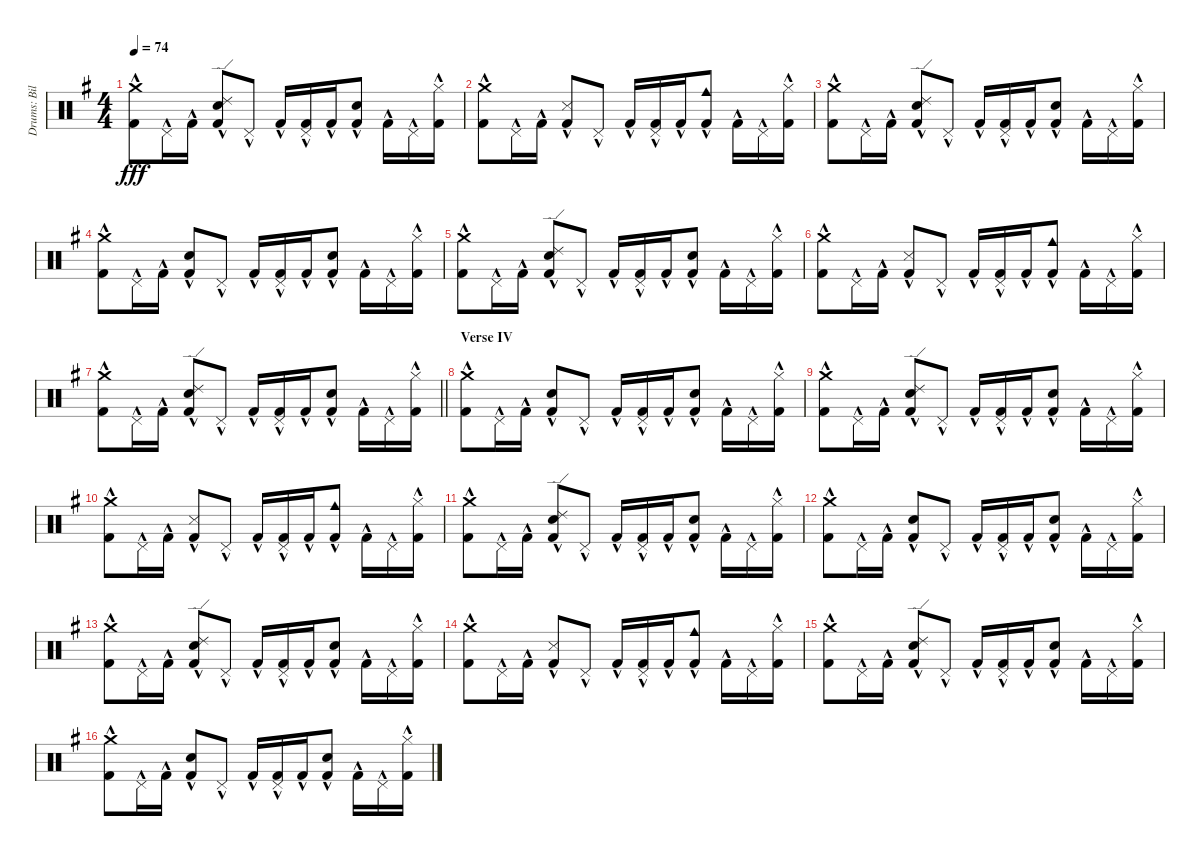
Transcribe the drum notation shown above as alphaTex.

\track ("Drums: Bill" "Drums: Bil") {instrument percussion}
\staff {score}
\articulation defaults
\ts (4 4)
\tempo 74
\clef neutral
\ks g
("Crash medium (hit)"{hac} "Kick (hit) 2"{hac}).8{dy fff} "Pedal Hi-Hat (hit)"{hac}.16 "Kick (hit) 2"{hac}.16 ("Ride (edge) 2" "Snare (hit) 2"{hac} "Kick (hit) 2"{hac}).8 "Pedal Hi-Hat (hit)"{hac}.8 "Kick (hit) 2"{hac}.16 ("Pedal Hi-Hat (hit)"{hac} "Kick (hit) 2"{hac}).16 "Kick (hit) 2"{hac}.16 ("Snare (hit) 2"{hac} "Kick (hit) 2"{hac}).8 "Kick (hit) 2"{hac}.16 "Pedal Hi-Hat (hit)"{hac}.16 ("Hi-Hat (closed)" "Kick (hit) 2"{hac}).16 |
("Crash medium (hit)"{hac} "Kick (hit) 2"{hac}).8 "Pedal Hi-Hat (hit)"{hac}.16 "Kick (hit) 2"{hac}.16 ("Kick (hit) 2"{hac} "Snare (side stick) 3").8 "Pedal Hi-Hat (hit)"{hac}.8 "Kick (hit) 2"{hac}.16 ("Pedal Hi-Hat (hit)"{hac} "Kick (hit) 2"{hac}).16 "Kick (hit) 2"{hac}.16 ("Kick (hit) 2"{hac} "Cowbell medium (hit)").8 "Kick (hit) 2"{hac}.16 "Pedal Hi-Hat (hit)"{hac}.16 ("Hi-Hat (closed)" "Kick (hit) 2"{hac}).16 |
("Crash medium (hit)"{hac} "Kick (hit) 2"{hac}).8 "Pedal Hi-Hat (hit)"{hac}.16 "Kick (hit) 2"{hac}.16 ("Ride (edge) 2" "Snare (hit) 2"{hac} "Kick (hit) 2"{hac}).8 "Pedal Hi-Hat (hit)"{hac}.8 "Kick (hit) 2"{hac}.16 ("Pedal Hi-Hat (hit)"{hac} "Kick (hit) 2"{hac}).16 "Kick (hit) 2"{hac}.16 ("Snare (hit) 2"{hac} "Kick (hit) 2"{hac}).8 "Kick (hit) 2"{hac}.16 "Pedal Hi-Hat (hit)"{hac}.16 ("Hi-Hat (closed)" "Kick (hit) 2"{hac}).16 |
("Crash medium (hit)"{hac} "Kick (hit) 2"{hac}).8 "Pedal Hi-Hat (hit)"{hac}.16 "Kick (hit) 2"{hac}.16 ("Snare (hit) 2"{hac} "Kick (hit) 2"{hac}).8 "Pedal Hi-Hat (hit)"{hac}.8 "Kick (hit) 2"{hac}.16 ("Pedal Hi-Hat (hit)"{hac} "Kick (hit) 2"{hac}).16 "Kick (hit) 2"{hac}.16 ("Snare (hit) 2"{hac} "Kick (hit) 2"{hac}).8 "Kick (hit) 2"{hac}.16 "Pedal Hi-Hat (hit)"{hac}.16 ("Hi-Hat (closed)" "Kick (hit) 2"{hac}).16 |
("Crash medium (hit)"{hac} "Kick (hit) 2"{hac}).8 "Pedal Hi-Hat (hit)"{hac}.16 "Kick (hit) 2"{hac}.16 ("Ride (edge) 2" "Snare (hit) 2"{hac} "Kick (hit) 2"{hac}).8 "Pedal Hi-Hat (hit)"{hac}.8 "Kick (hit) 2"{hac}.16 ("Pedal Hi-Hat (hit)"{hac} "Kick (hit) 2"{hac}).16 "Kick (hit) 2"{hac}.16 ("Snare (hit) 2"{hac} "Kick (hit) 2"{hac}).8 "Kick (hit) 2"{hac}.16 "Pedal Hi-Hat (hit)"{hac}.16 ("Hi-Hat (closed)" "Kick (hit) 2"{hac}).16 |
("Crash medium (hit)"{hac} "Kick (hit) 2"{hac}).8 "Pedal Hi-Hat (hit)"{hac}.16 "Kick (hit) 2"{hac}.16 ("Kick (hit) 2"{hac} "Snare (side stick) 3").8 "Pedal Hi-Hat (hit)"{hac}.8 "Kick (hit) 2"{hac}.16 ("Pedal Hi-Hat (hit)"{hac} "Kick (hit) 2"{hac}).16 "Kick (hit) 2"{hac}.16 ("Kick (hit) 2"{hac} "Cowbell medium (hit)").8 "Kick (hit) 2"{hac}.16 "Pedal Hi-Hat (hit)"{hac}.16 ("Hi-Hat (closed)" "Kick (hit) 2"{hac}).16 |
\barLineRight lightlight
("Crash medium (hit)"{hac} "Kick (hit) 2"{hac}).8 "Pedal Hi-Hat (hit)"{hac}.16 "Kick (hit) 2"{hac}.16 ("Ride (edge) 2" "Snare (hit) 2"{hac} "Kick (hit) 2"{hac}).8 "Pedal Hi-Hat (hit)"{hac}.8 "Kick (hit) 2"{hac}.16 ("Pedal Hi-Hat (hit)"{hac} "Kick (hit) 2"{hac}).16 "Kick (hit) 2"{hac}.16 ("Snare (hit) 2"{hac} "Kick (hit) 2"{hac}).8 "Kick (hit) 2"{hac}.16 "Pedal Hi-Hat (hit)"{hac}.16 ("Hi-Hat (closed)" "Kick (hit) 2"{hac}).16 |
\section ("" "Verse IV")
("Crash medium (hit)"{hac} "Kick (hit) 2"{hac}).8 "Pedal Hi-Hat (hit)"{hac}.16 "Kick (hit) 2"{hac}.16 ("Snare (hit) 2"{hac} "Kick (hit) 2"{hac}).8 "Pedal Hi-Hat (hit)"{hac}.8 "Kick (hit) 2"{hac}.16 ("Pedal Hi-Hat (hit)"{hac} "Kick (hit) 2"{hac}).16 "Kick (hit) 2"{hac}.16 ("Snare (hit) 2"{hac} "Kick (hit) 2"{hac}).8 "Kick (hit) 2"{hac}.16 "Pedal Hi-Hat (hit)"{hac}.16 ("Hi-Hat (closed)" "Kick (hit) 2"{hac}).16 |
("Crash medium (hit)"{hac} "Kick (hit) 2"{hac}).8 "Pedal Hi-Hat (hit)"{hac}.16 "Kick (hit) 2"{hac}.16 ("Ride (edge) 2" "Snare (hit) 2"{hac} "Kick (hit) 2"{hac}).8 "Pedal Hi-Hat (hit)"{hac}.8 "Kick (hit) 2"{hac}.16 ("Pedal Hi-Hat (hit)"{hac} "Kick (hit) 2"{hac}).16 "Kick (hit) 2"{hac}.16 ("Snare (hit) 2"{hac} "Kick (hit) 2"{hac}).8 "Kick (hit) 2"{hac}.16 "Pedal Hi-Hat (hit)"{hac}.16 ("Hi-Hat (closed)" "Kick (hit) 2"{hac}).16 |
("Crash medium (hit)"{hac} "Kick (hit) 2"{hac}).8 "Pedal Hi-Hat (hit)"{hac}.16 "Kick (hit) 2"{hac}.16 ("Kick (hit) 2"{hac} "Snare (side stick) 3").8 "Pedal Hi-Hat (hit)"{hac}.8 "Kick (hit) 2"{hac}.16 ("Pedal Hi-Hat (hit)"{hac} "Kick (hit) 2"{hac}).16 "Kick (hit) 2"{hac}.16 ("Kick (hit) 2"{hac} "Cowbell medium (hit)").8 "Kick (hit) 2"{hac}.16 "Pedal Hi-Hat (hit)"{hac}.16 ("Hi-Hat (closed)" "Kick (hit) 2"{hac}).16 |
("Crash medium (hit)"{hac} "Kick (hit) 2"{hac}).8 "Pedal Hi-Hat (hit)"{hac}.16 "Kick (hit) 2"{hac}.16 ("Ride (edge) 2" "Snare (hit) 2"{hac} "Kick (hit) 2"{hac}).8 "Pedal Hi-Hat (hit)"{hac}.8 "Kick (hit) 2"{hac}.16 ("Pedal Hi-Hat (hit)"{hac} "Kick (hit) 2"{hac}).16 "Kick (hit) 2"{hac}.16 ("Snare (hit) 2"{hac} "Kick (hit) 2"{hac}).8 "Kick (hit) 2"{hac}.16 "Pedal Hi-Hat (hit)"{hac}.16 ("Hi-Hat (closed)" "Kick (hit) 2"{hac}).16 |
("Crash medium (hit)"{hac} "Kick (hit) 2"{hac}).8 "Pedal Hi-Hat (hit)"{hac}.16 "Kick (hit) 2"{hac}.16 ("Snare (hit) 2"{hac} "Kick (hit) 2"{hac}).8 "Pedal Hi-Hat (hit)"{hac}.8 "Kick (hit) 2"{hac}.16 ("Pedal Hi-Hat (hit)"{hac} "Kick (hit) 2"{hac}).16 "Kick (hit) 2"{hac}.16 ("Snare (hit) 2"{hac} "Kick (hit) 2"{hac}).8 "Kick (hit) 2"{hac}.16 "Pedal Hi-Hat (hit)"{hac}.16 ("Hi-Hat (closed)" "Kick (hit) 2"{hac}).16 |
("Crash medium (hit)"{hac} "Kick (hit) 2"{hac}).8 "Pedal Hi-Hat (hit)"{hac}.16 "Kick (hit) 2"{hac}.16 ("Ride (edge) 2" "Snare (hit) 2"{hac} "Kick (hit) 2"{hac}).8 "Pedal Hi-Hat (hit)"{hac}.8 "Kick (hit) 2"{hac}.16 ("Pedal Hi-Hat (hit)"{hac} "Kick (hit) 2"{hac}).16 "Kick (hit) 2"{hac}.16 ("Snare (hit) 2"{hac} "Kick (hit) 2"{hac}).8 "Kick (hit) 2"{hac}.16 "Pedal Hi-Hat (hit)"{hac}.16 ("Hi-Hat (closed)" "Kick (hit) 2"{hac}).16 |
("Crash medium (hit)"{hac} "Kick (hit) 2"{hac}).8 "Pedal Hi-Hat (hit)"{hac}.16 "Kick (hit) 2"{hac}.16 ("Kick (hit) 2"{hac} "Snare (side stick) 3").8 "Pedal Hi-Hat (hit)"{hac}.8 "Kick (hit) 2"{hac}.16 ("Pedal Hi-Hat (hit)"{hac} "Kick (hit) 2"{hac}).16 "Kick (hit) 2"{hac}.16 ("Kick (hit) 2"{hac} "Cowbell medium (hit)").8 "Kick (hit) 2"{hac}.16 "Pedal Hi-Hat (hit)"{hac}.16 ("Hi-Hat (closed)" "Kick (hit) 2"{hac}).16 |
("Crash medium (hit)"{hac} "Kick (hit) 2"{hac}).8 "Pedal Hi-Hat (hit)"{hac}.16 "Kick (hit) 2"{hac}.16 ("Ride (edge) 2" "Snare (hit) 2"{hac} "Kick (hit) 2"{hac}).8 "Pedal Hi-Hat (hit)"{hac}.8 "Kick (hit) 2"{hac}.16 ("Pedal Hi-Hat (hit)"{hac} "Kick (hit) 2"{hac}).16 "Kick (hit) 2"{hac}.16 ("Snare (hit) 2"{hac} "Kick (hit) 2"{hac}).8 "Kick (hit) 2"{hac}.16 "Pedal Hi-Hat (hit)"{hac}.16 ("Hi-Hat (closed)" "Kick (hit) 2"{hac}).16 |
("Crash medium (hit)"{hac} "Kick (hit) 2"{hac}).8 "Pedal Hi-Hat (hit)"{hac}.16 "Kick (hit) 2"{hac}.16 ("Snare (hit) 2"{hac} "Kick (hit) 2"{hac}).8 "Pedal Hi-Hat (hit)"{hac}.8 "Kick (hit) 2"{hac}.16 ("Pedal Hi-Hat (hit)"{hac} "Kick (hit) 2"{hac}).16 "Kick (hit) 2"{hac}.16 ("Snare (hit) 2"{hac} "Kick (hit) 2"{hac}).8 "Kick (hit) 2"{hac}.16 "Pedal Hi-Hat (hit)"{hac}.16 ("Hi-Hat (closed)" "Kick (hit) 2"{hac}).16
